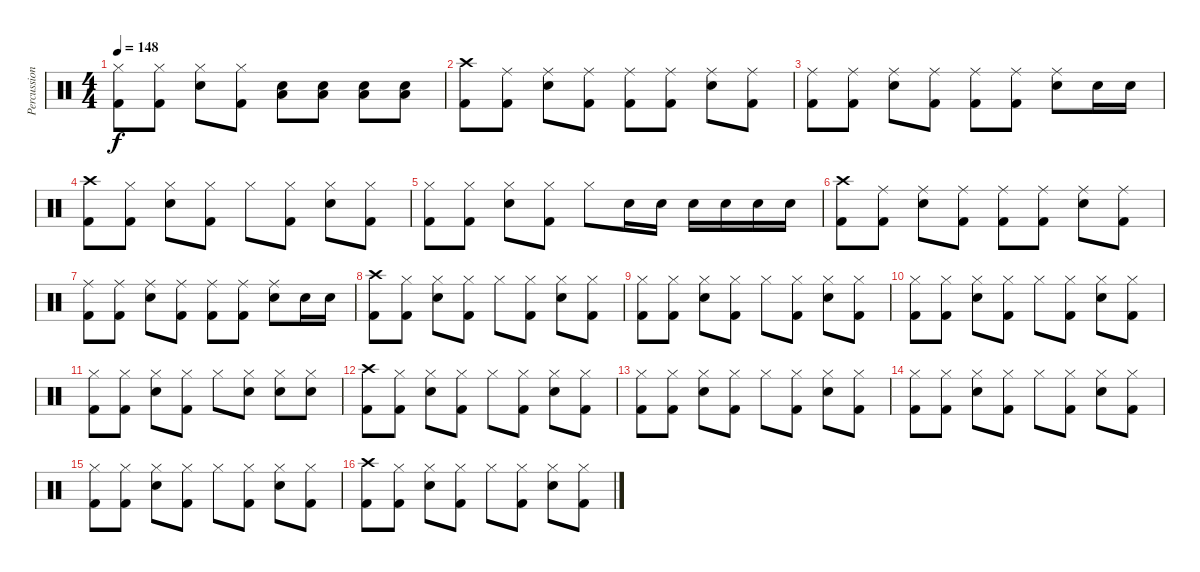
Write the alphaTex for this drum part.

\track ("Percussion" "Percussion") {instrument percussion}
\staff {score}
\articulation defaults
\ts (4 4)
\tempo 148
\clef neutral
\ks c
("Hi-Hat (closed)" "Kick (hit) 2").8{dy f} ("Hi-Hat (closed)" "Kick (hit) 2").8 ("Hi-Hat (closed)" "Electric Snare (hit)").8 ("Hi-Hat (closed)" "Kick (hit) 2").8 ("Electric Snare (hit)" "Low Tom (hit)").8 ("Electric Snare (hit)" "Low Tom (hit)").8 ("Electric Snare (hit)" "Low Tom (hit)").8 ("Electric Snare (hit)" "Low Tom (hit)").8 |
("Crash high (hit)" "Kick (hit) 2").8 ("Ride (middle)" "Kick (hit) 2").8 ("Ride (middle)" "Electric Snare (hit)").8 ("Ride (middle)" "Kick (hit) 2").8 ("Ride (middle)" "Kick (hit) 2").8 ("Ride (middle)" "Kick (hit) 2").8 ("Ride (middle)" "Electric Snare (hit)").8 ("Ride (middle)" "Kick (hit) 2").8 |
("Ride (middle)" "Kick (hit) 2").8 ("Ride (middle)" "Kick (hit) 2").8 ("Ride (middle)" "Electric Snare (hit)").8 ("Ride (middle)" "Kick (hit) 2").8 ("Ride (middle)" "Kick (hit) 2").8 ("Ride (middle)" "Kick (hit) 2").8 ("Ride (middle)" "Electric Snare (hit)").8 "Electric Snare (hit)".16 "Electric Snare (hit)".16 |
("Crash high (hit)" "Kick (hit) 2").8 ("Hi-Hat (closed)" "Kick (hit) 2").8 ("Hi-Hat (closed)" "Electric Snare (hit)").8 ("Hi-Hat (closed)" "Kick (hit) 2").8 "Hi-Hat (closed)".8 ("Hi-Hat (closed)" "Kick (hit) 2").8 ("Hi-Hat (closed)" "Electric Snare (hit)").8 ("Hi-Hat (closed)" "Kick (hit) 2").8 |
("Hi-Hat (closed)" "Kick (hit) 2").8 ("Hi-Hat (closed)" "Kick (hit) 2").8 ("Hi-Hat (closed)" "Electric Snare (hit)").8 ("Hi-Hat (closed)" "Kick (hit) 2").8 "Hi-Hat (closed)".8 "Electric Snare (hit)".16 "Electric Snare (hit)".16 "Electric Snare (hit)".16 "Electric Snare (hit)".16 "Electric Snare (hit)".16 "Electric Snare (hit)".16 |
("Crash high (hit)" "Kick (hit) 2").8 ("Ride (middle)" "Kick (hit) 2").8 ("Ride (middle)" "Electric Snare (hit)").8 ("Ride (middle)" "Kick (hit) 2").8 ("Ride (middle)" "Kick (hit) 2").8 ("Ride (middle)" "Kick (hit) 2").8 ("Ride (middle)" "Electric Snare (hit)").8 ("Ride (middle)" "Kick (hit) 2").8 |
("Ride (middle)" "Kick (hit) 2").8 ("Ride (middle)" "Kick (hit) 2").8 ("Ride (middle)" "Electric Snare (hit)").8 ("Ride (middle)" "Kick (hit) 2").8 ("Ride (middle)" "Kick (hit) 2").8 ("Ride (middle)" "Kick (hit) 2").8 ("Ride (middle)" "Electric Snare (hit)").8 "Electric Snare (hit)".16 "Electric Snare (hit)".16 |
("Crash high (hit)" "Kick (hit) 2").8 ("Hi-Hat (closed)" "Kick (hit) 2").8 ("Hi-Hat (closed)" "Electric Snare (hit)").8 ("Hi-Hat (closed)" "Kick (hit) 2").8 "Hi-Hat (closed)".8 ("Hi-Hat (closed)" "Kick (hit) 2").8 ("Hi-Hat (closed)" "Electric Snare (hit)").8 ("Hi-Hat (closed)" "Kick (hit) 2").8 |
("Hi-Hat (closed)" "Kick (hit) 2").8 ("Hi-Hat (closed)" "Kick (hit) 2").8 ("Hi-Hat (closed)" "Electric Snare (hit)").8 ("Hi-Hat (closed)" "Kick (hit) 2").8 "Hi-Hat (closed)".8 ("Hi-Hat (closed)" "Kick (hit) 2").8 ("Hi-Hat (closed)" "Electric Snare (hit)").8 ("Hi-Hat (closed)" "Kick (hit) 2").8 |
("Hi-Hat (closed)" "Kick (hit) 2").8 ("Hi-Hat (closed)" "Kick (hit) 2").8 ("Hi-Hat (closed)" "Electric Snare (hit)").8 ("Hi-Hat (closed)" "Kick (hit) 2").8 "Hi-Hat (closed)".8 ("Hi-Hat (closed)" "Kick (hit) 2").8 ("Hi-Hat (closed)" "Electric Snare (hit)").8 ("Hi-Hat (closed)" "Kick (hit) 2").8 |
("Hi-Hat (closed)" "Kick (hit) 2").8 ("Hi-Hat (closed)" "Kick (hit) 2").8 ("Hi-Hat (closed)" "Electric Snare (hit)").8 ("Hi-Hat (closed)" "Kick (hit) 2").8 "Hi-Hat (closed)".8 ("Hi-Hat (closed)" "Electric Snare (hit)").8 ("Hi-Hat (closed)" "Electric Snare (hit)").8 ("Hi-Hat (closed)" "Electric Snare (hit)").8 |
("Crash high (hit)" "Kick (hit) 2").8 ("Hi-Hat (closed)" "Kick (hit) 2").8 ("Hi-Hat (closed)" "Electric Snare (hit)").8 ("Hi-Hat (closed)" "Kick (hit) 2").8 "Hi-Hat (closed)".8 ("Hi-Hat (closed)" "Kick (hit) 2").8 ("Hi-Hat (closed)" "Electric Snare (hit)").8 ("Hi-Hat (closed)" "Kick (hit) 2").8 |
("Hi-Hat (closed)" "Kick (hit) 2").8 ("Hi-Hat (closed)" "Kick (hit) 2").8 ("Hi-Hat (closed)" "Electric Snare (hit)").8 ("Hi-Hat (closed)" "Kick (hit) 2").8 "Hi-Hat (closed)".8 ("Hi-Hat (closed)" "Kick (hit) 2").8 ("Hi-Hat (closed)" "Electric Snare (hit)").8 ("Hi-Hat (closed)" "Kick (hit) 2").8 |
("Hi-Hat (closed)" "Kick (hit) 2").8 ("Hi-Hat (closed)" "Kick (hit) 2").8 ("Hi-Hat (closed)" "Electric Snare (hit)").8 ("Hi-Hat (closed)" "Kick (hit) 2").8 "Hi-Hat (closed)".8 ("Hi-Hat (closed)" "Kick (hit) 2").8 ("Hi-Hat (closed)" "Electric Snare (hit)").8 ("Hi-Hat (closed)" "Kick (hit) 2").8 |
("Hi-Hat (closed)" "Kick (hit) 2").8 ("Hi-Hat (closed)" "Kick (hit) 2").8 ("Hi-Hat (closed)" "Electric Snare (hit)").8 ("Hi-Hat (closed)" "Kick (hit) 2").8 "Hi-Hat (closed)".8 ("Hi-Hat (closed)" "Kick (hit) 2").8 ("Hi-Hat (closed)" "Electric Snare (hit)").8 ("Hi-Hat (closed)" "Kick (hit) 2").8 |
("Crash high (hit)" "Kick (hit) 2").8 ("Hi-Hat (closed)" "Kick (hit) 2").8 ("Hi-Hat (closed)" "Electric Snare (hit)").8 ("Hi-Hat (closed)" "Kick (hit) 2").8 "Hi-Hat (closed)".8 ("Hi-Hat (closed)" "Kick (hit) 2").8 ("Hi-Hat (closed)" "Electric Snare (hit)").8 ("Hi-Hat (closed)" "Kick (hit) 2").8
